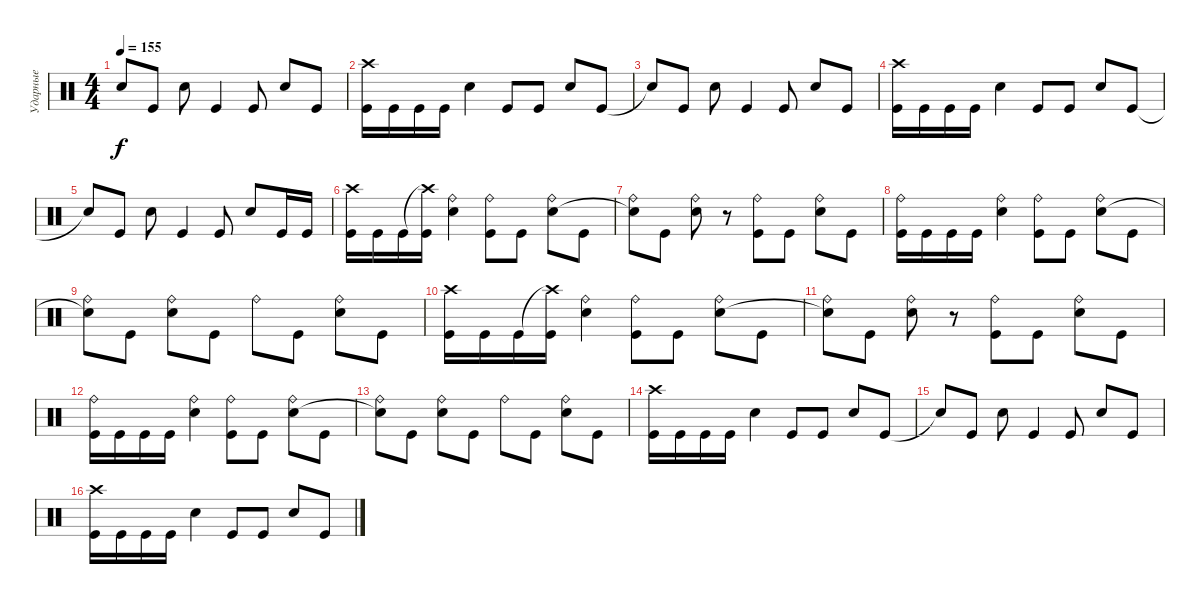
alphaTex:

\track ("Ударные" "Ударные") {instrument percussion}
\staff {score}
\articulation defaults
\ts (4 4)
\tempo 155
\clef neutral
\ks c "Snare (hit)"{t}.8{dy f} "Kick (hit)".8 "Electric Snare (hit)".8 "Kick (hit)".4 "Kick (hit)".8 "Electric Snare (hit)".8 "Kick (hit)".8
|
("Crash high (hit)" "Kick (hit)").16 "Kick (hit)".16 "Kick (hit)".16 "Kick (hit)".16 "Electric Snare (hit)".4 "Kick (hit)".8 "Kick (hit)".8 "Electric Snare (hit)".8 "Kick (hit)".8 |
"Snare (hit)"{t}.8 "Kick (hit)".8 "Electric Snare (hit)".8 "Kick (hit)".4 "Kick (hit)".8 "Electric Snare (hit)".8 "Kick (hit)".8 |
("Crash high (hit)" "Kick (hit)").16 "Kick (hit)".16 "Kick (hit)".16 "Kick (hit)".16 "Electric Snare (hit)".4 "Kick (hit)".8 "Kick (hit)".8 "Electric Snare (hit)".8 "Kick (hit)".8 |
"Snare (hit)"{t}.8 "Kick (hit)".8 "Electric Snare (hit)".8 "Kick (hit)".4 "Kick (hit)".8 "Electric Snare (hit)".8 "Kick (hit)".16 "Kick (hit)".16 |
("Crash high (hit)" "Kick (hit)").16 "Kick (hit)".16 "Kick (hit)".16 ("Crash high (hit)"{t} "Kick (hit)").16 ("Ride (bell)" "Electric Snare (hit)").4 ("Ride (bell)" "Kick (hit)").8 "Kick (hit)".8 ("Ride (bell)" "Electric Snare (hit)").8 "Kick (hit)".8 |
("Ride (bell)" "Snare (hit)"{t}).8 "Kick (hit)".8 ("Ride (bell)" "Electric Snare (hit)").8 r.8 ("Ride (bell)" "Kick (hit)").8 "Kick (hit)".8 ("Ride (bell)" "Electric Snare (hit)").8 "Kick (hit)".8 |
("Ride (bell)" "Kick (hit)").16 "Kick (hit)".16 "Kick (hit)".16 "Kick (hit)".16 ("Ride (bell)" "Electric Snare (hit)").4 ("Ride (bell)" "Kick (hit)").8 "Kick (hit)".8 ("Ride (bell)" "Electric Snare (hit)").8 "Kick (hit)".8 |
("Ride (bell)" "Snare (hit)"{t}).8 "Kick (hit)".8 ("Ride (bell)" "Electric Snare (hit)").8 "Kick (hit)".8 "Ride (bell)".8 "Kick (hit)".8 ("Ride (bell)" "Electric Snare (hit)").8 "Kick (hit)".8 |
("Crash high (hit)" "Kick (hit)").16 "Kick (hit)".16 "Kick (hit)".16 ("Crash high (hit)"{t} "Kick (hit)").16 ("Ride (bell)" "Electric Snare (hit)").4 ("Ride (bell)" "Kick (hit)").8 "Kick (hit)".8 ("Ride (bell)" "Electric Snare (hit)").8 "Kick (hit)".8 |
("Ride (bell)" "Snare (hit)"{t}).8 "Kick (hit)".8 ("Ride (bell)" "Electric Snare (hit)").8 r.8 ("Ride (bell)" "Kick (hit)").8 "Kick (hit)".8 ("Ride (bell)" "Electric Snare (hit)").8 "Kick (hit)".8 |
("Ride (bell)" "Kick (hit)").16 "Kick (hit)".16 "Kick (hit)".16 "Kick (hit)".16 ("Ride (bell)" "Electric Snare (hit)").4 ("Ride (bell)" "Kick (hit)").8 "Kick (hit)".8 ("Ride (bell)" "Electric Snare (hit)").8 "Kick (hit)".8 |
("Ride (bell)" "Snare (hit)"{t}).8 "Kick (hit)".8 ("Ride (bell)" "Electric Snare (hit)").8 "Kick (hit)".8 "Ride (bell)".8 "Kick (hit)".8 ("Ride (bell)" "Electric Snare (hit)").8 "Kick (hit)".8 |
("Crash high (hit)" "Kick (hit)").16 "Kick (hit)".16 "Kick (hit)".16 "Kick (hit)".16 "Electric Snare (hit)".4 "Kick (hit)".8 "Kick (hit)".8 "Electric Snare (hit)".8 "Kick (hit)".8 |
"Snare (hit)"{t}.8 "Kick (hit)".8 "Electric Snare (hit)".8 "Kick (hit)".4 "Kick (hit)".8 "Electric Snare (hit)".8 "Kick (hit)".8 |
("Crash high (hit)" "Kick (hit)").16 "Kick (hit)".16 "Kick (hit)".16 "Kick (hit)".16 "Electric Snare (hit)".4 "Kick (hit)".8 "Kick (hit)".8 "Electric Snare (hit)".8 "Kick (hit)".8
